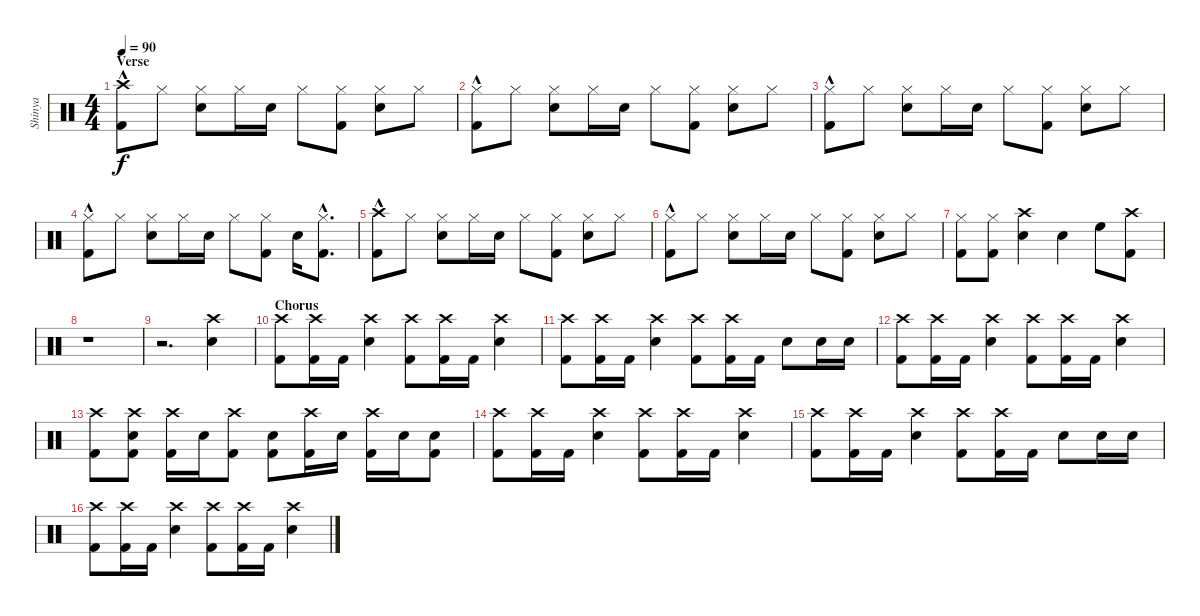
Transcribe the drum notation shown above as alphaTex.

\track ("Shinya" "Shinya") {instrument percussion}
\staff {score}
\articulation defaults
\ts (4 4)
\section ("" "Verse")
\tempo 90
\clef neutral
\ks c
("Kick (hit) 2"{hac} "Crash high (hit)").8{dy f} "Hi-Hat (closed)".8 ("Snare (hit) 2" "Hi-Hat (closed)").8 "Hi-Hat (closed)".16 "Snare (hit) 2".16 "Hi-Hat (closed)".8 ("Kick (hit) 2" "Hi-Hat (closed)").8 ("Snare (hit) 2" "Hi-Hat (closed)").8 "Hi-Hat (closed)".8 |
("Kick (hit) 2"{hac} "Hi-Hat (closed)").8 "Hi-Hat (closed)".8 ("Snare (hit) 2" "Hi-Hat (closed)").8 "Hi-Hat (closed)".16 "Snare (hit) 2".16 "Hi-Hat (closed)".8 ("Kick (hit) 2" "Hi-Hat (closed)").8 ("Snare (hit) 2" "Hi-Hat (closed)").8 "Hi-Hat (closed)".8 |
("Kick (hit) 2"{hac} "Hi-Hat (closed)").8 "Hi-Hat (closed)".8 ("Snare (hit) 2" "Hi-Hat (closed)").8 "Hi-Hat (closed)".16 "Snare (hit) 2".16 "Hi-Hat (closed)".8 ("Kick (hit) 2" "Hi-Hat (closed)").8 ("Snare (hit) 2" "Hi-Hat (closed)").8 "Hi-Hat (closed)".8 |
("Kick (hit) 2"{hac} "Hi-Hat (closed)").8 "Hi-Hat (closed)".8 ("Snare (hit) 2" "Hi-Hat (closed)").8 "Hi-Hat (closed)".16 "Snare (hit) 2".16 "Hi-Hat (closed)".8 ("Kick (hit) 2" "Hi-Hat (closed)").8 "Snare (hit) 2".16 ("Kick (hit) 2"{hac} "Hi-Hat (closed)"{hac}).8{d} |
("Kick (hit) 2"{hac} "Crash high (hit)").8 "Hi-Hat (closed)".8 ("Snare (hit) 2" "Hi-Hat (closed)").8 "Hi-Hat (closed)".16 "Snare (hit) 2".16 "Hi-Hat (closed)".8 ("Kick (hit) 2" "Hi-Hat (closed)").8 ("Snare (hit) 2" "Hi-Hat (closed)").8 "Hi-Hat (closed)".8 |
("Kick (hit) 2"{hac} "Hi-Hat (closed)").8 "Hi-Hat (closed)".8 ("Snare (hit) 2" "Hi-Hat (closed)").8 "Hi-Hat (closed)".16 "Snare (hit) 2".16 "Hi-Hat (closed)".8 ("Kick (hit) 2" "Hi-Hat (closed)").8 ("Snare (hit) 2" "Hi-Hat (closed)").8 "Hi-Hat (closed)".8 |
("Hi-Hat (closed)" "Kick (hit) 2").8 ("Hi-Hat (closed)" "Kick (hit) 2").8 ("Snare (hit) 2" "Crash high (hit)").4 "Snare (hit) 2".4 "High Floor Tom (hit)".8 ("Crash high (hit)" "Kick (hit) 2").8 |
r.1 |
r.2{d} ("Snare (hit) 2" "Crash high (hit)").4 |
\section ("" "Chorus")
("Kick (hit) 2" "Crash high (hit)").8 ("Kick (hit) 2" "Crash high (hit)").16 "Kick (hit) 2".16 ("Snare (hit) 2" "Crash high (hit)").4 ("Kick (hit) 2" "Crash high (hit)").8 ("Kick (hit) 2" "Crash high (hit)").16 "Kick (hit) 2".16 ("Snare (hit) 2" "Crash high (hit)").4 |
("Kick (hit) 2" "Crash high (hit)").8 ("Kick (hit) 2" "Crash high (hit)").16 "Kick (hit) 2".16 ("Snare (hit) 2" "Crash high (hit)").4 ("Kick (hit) 2" "Crash high (hit)").8 ("Kick (hit) 2" "Crash high (hit)").16 "Kick (hit) 2".16 "Snare (hit) 2".8 "Snare (hit) 2".16 "Snare (hit) 2".16 |
("Kick (hit) 2" "Crash high (hit)").8 ("Kick (hit) 2" "Crash high (hit)").16 "Kick (hit) 2".16 ("Snare (hit) 2" "Crash high (hit)").4 ("Kick (hit) 2" "Crash high (hit)").8 ("Kick (hit) 2" "Crash high (hit)").16 "Kick (hit) 2".16 ("Snare (hit) 2" "Crash high (hit)").4 |
("Kick (hit) 2" "Crash high (hit)").8 ("Kick (hit) 2" "Snare (hit) 2" "Crash high (hit)").8 ("Kick (hit) 2" "Crash high (hit)").16 "Snare (hit) 2".16 ("Kick (hit) 2" "Crash high (hit)").8 ("Kick (hit) 2" "Snare (hit) 2").8 ("Kick (hit) 2" "Crash high (hit)").16 "Snare (hit) 2".16 ("Kick (hit) 2" "Crash high (hit)").16 "Snare (hit) 2".16 ("Kick (hit) 2" "Snare (hit) 2").8 |
("Kick (hit) 2" "Crash high (hit)").8 ("Kick (hit) 2" "Crash high (hit)").16 "Kick (hit) 2".16 ("Snare (hit) 2" "Crash high (hit)").4 ("Kick (hit) 2" "Crash high (hit)").8 ("Kick (hit) 2" "Crash high (hit)").16 "Kick (hit) 2".16 ("Snare (hit) 2" "Crash high (hit)").4 |
("Kick (hit) 2" "Crash high (hit)").8 ("Kick (hit) 2" "Crash high (hit)").16 "Kick (hit) 2".16 ("Snare (hit) 2" "Crash high (hit)").4 ("Kick (hit) 2" "Crash high (hit)").8 ("Kick (hit) 2" "Crash high (hit)").16 "Kick (hit) 2".16 "Snare (hit) 2".8 "Snare (hit) 2".16 "Snare (hit) 2".16 |
("Kick (hit) 2" "Crash high (hit)").8 ("Kick (hit) 2" "Crash high (hit)").16 "Kick (hit) 2".16 ("Snare (hit) 2" "Crash high (hit)").4 ("Kick (hit) 2" "Crash high (hit)").8 ("Kick (hit) 2" "Crash high (hit)").16 "Kick (hit) 2".16 ("Snare (hit) 2" "Crash high (hit)").4
